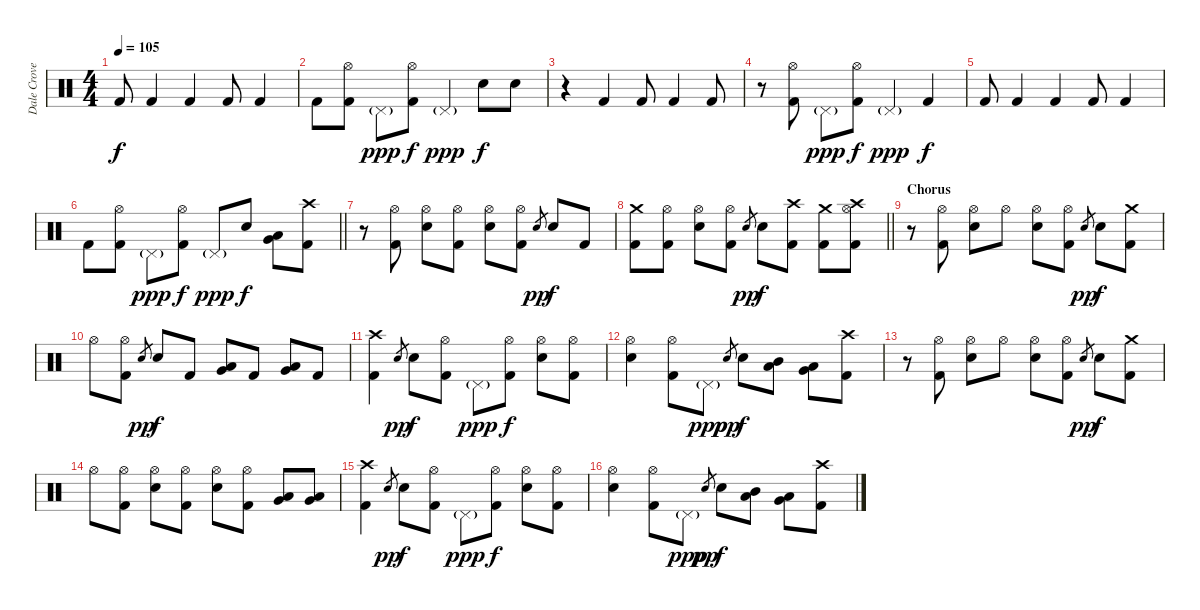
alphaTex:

\track ("Dale Crover" "Dale Crove") {instrument percussion}
\staff {score}
\articulation defaults
\ts (4 4)
\tempo 105
\clef neutral
\ks c "Kick (hit) 2".8{dy f} "Kick (hit) 2".4 "Kick (hit) 2".4 "Kick (hit) 2".8 "Kick (hit) 2".4
|
"Kick (hit) 2".8 ("Hi-Hat (open)" "Kick (hit) 2").8 "Pedal Hi-Hat (hit)"{g}.8{dy ppp} ("Hi-Hat (open)" "Kick (hit) 2").8{dy f} "Pedal Hi-Hat (hit)"{g}.4{dy ppp} "Electric Snare (hit)".8{dy f} "Electric Snare (hit)".8 |
r.4 "Kick (hit) 2".4 "Kick (hit) 2".8 "Kick (hit) 2".4 "Kick (hit) 2".8 |
r.8 ("Hi-Hat (open)" "Kick (hit) 2").8 "Pedal Hi-Hat (hit)"{g}.8{dy ppp} ("Hi-Hat (open)" "Kick (hit) 2").8{dy f} "Pedal Hi-Hat (hit)"{g}.4{dy ppp} "Kick (hit) 2".4{dy f} |
"Kick (hit) 2".8 "Kick (hit) 2".4 "Kick (hit) 2".4 "Kick (hit) 2".8 "Kick (hit) 2".4 |
\barLineRight lightlight "Kick (hit) 2".8
("Hi-Hat (open)" "Kick (hit) 2").8 "Pedal Hi-Hat (hit)"{g}.8{dy ppp} ("Hi-Hat (open)" "Kick (hit) 2").8{dy f} "Pedal Hi-Hat (hit)"{g}.8{dy ppp} "Electric Snare (hit)".8{dy f} ("Low Tom (hit)" "Very Low Tom (hit)").8 ("Crash high (hit)" "Kick (hit) 2").8 |
\section ("" "")
r.8 ("Hi-Hat (open)" "Kick (hit) 2").8 ("Hi-Hat (open)" "Electric Snare (hit)").8 ("Hi-Hat (open)" "Kick (hit) 2").8 ("Hi-Hat (open)" "Electric Snare (hit)").8 ("Hi-Hat (open)" "Kick (hit) 2").8 "Electric Snare (hit)".8{gr dy pp} "Electric Snare (hit)".8{dy f} "Kick (hit) 2".8 |
\barLineRight lightlight
("Crash medium (hit)" "Kick (hit) 2").8 ("Hi-Hat (open)" "Kick (hit) 2").8 ("Hi-Hat (open)" "Electric Snare (hit)").8 ("Hi-Hat (open)" "Kick (hit) 2").8 "Electric Snare (hit)".8{gr dy pp} "Electric Snare (hit)".8{dy f} ("Crash high (hit)" "Kick (hit) 2").8 ("Crash medium (hit)" "Kick (hit) 2").8 ("Hi-Hat (open)" "Crash high (hit)" "Kick (hit) 2").8 |
\section ("" "Chorus")
r.8 ("Hi-Hat (open)" "Kick (hit) 2").8 ("Hi-Hat (open)" "Electric Snare (hit)").8 "Hi-Hat (open)".8 ("Hi-Hat (open)" "Electric Snare (hit)").8 ("Hi-Hat (open)" "Kick (hit) 2").8 "Electric Snare (hit)".8{gr dy pp} "Electric Snare (hit)".8{dy f} ("Crash medium (hit)" "Kick (hit) 2").8 |
"Hi-Hat (open)".8 ("Hi-Hat (open)" "Kick (hit) 2").8 "Electric Snare (hit)".8{gr dy pp} "Electric Snare (hit)".8{dy f} "Kick (hit) 2".8 ("Low Tom (hit)" "Very Low Tom (hit)").8 "Kick (hit) 2".8 ("Very Low Tom (hit)" "Low Floor Tom (hit)").8 "Kick (hit) 2".8 |
("Crash high (hit)" "Kick (hit) 2").4 "Electric Snare (hit)".8{gr dy pp} "Electric Snare (hit)".8{dy f} ("Hi-Hat (open)" "Kick (hit) 2").8 "Pedal Hi-Hat (hit)"{g}.8{dy ppp} ("Hi-Hat (open)" "Kick (hit) 2").8{dy f} ("Hi-Hat (open)" "Electric Snare (hit)").8 ("Hi-Hat (open)" "Kick (hit) 2").8 |
("Hi-Hat (open)" "Electric Snare (hit)").4 ("Hi-Hat (open)" "Kick (hit) 2").8 "Pedal Hi-Hat (hit)"{g}.8{dy ppp} "Electric Snare (hit)".8{gr dy pp} "Electric Snare (hit)".8{dy f} ("Mid Tom (hit)" "Low Tom (hit)").8 ("Low Tom (hit)" "Very Low Tom (hit)").8 ("Crash high (hit)" "Kick (hit) 2").8 |
r.8 ("Hi-Hat (open)" "Kick (hit) 2").8 ("Hi-Hat (open)" "Electric Snare (hit)").8 "Hi-Hat (open)".8 ("Hi-Hat (open)" "Electric Snare (hit)").8 ("Hi-Hat (open)" "Kick (hit) 2").8 "Electric Snare (hit)".8{gr dy pp} "Electric Snare (hit)".8{dy f} ("Crash medium (hit)" "Kick (hit) 2").8 |
"Hi-Hat (open)".8 ("Hi-Hat (open)" "Kick (hit) 2").8 ("Hi-Hat (open)" "Electric Snare (hit)").8 ("Hi-Hat (open)" "Kick (hit) 2").8 ("Hi-Hat (open)" "Electric Snare (hit)").8 ("Hi-Hat (open)" "Kick (hit) 2").8 ("Low Tom (hit)" "Very Low Tom (hit)").8 ("Very Low Tom (hit)" "Low Floor Tom (hit)").8 |
("Crash high (hit)" "Kick (hit) 2").4 "Electric Snare (hit)".8{gr dy pp} "Electric Snare (hit)".8{dy f} ("Hi-Hat (open)" "Kick (hit) 2").8 "Pedal Hi-Hat (hit)"{g}.8{dy ppp} ("Hi-Hat (open)" "Kick (hit) 2").8{dy f} ("Hi-Hat (open)" "Electric Snare (hit)").8 ("Hi-Hat (open)" "Kick (hit) 2").8 |
("Hi-Hat (open)" "Electric Snare (hit)").4 ("Hi-Hat (open)" "Kick (hit) 2").8 "Pedal Hi-Hat (hit)"{g}.8{dy ppp} "Electric Snare (hit)".8{gr dy pp} "Electric Snare (hit)".8{dy f} ("Mid Tom (hit)" "Low Tom (hit)").8 ("Low Tom (hit)" "Very Low Tom (hit)").8 ("Crash high (hit)" "Kick (hit) 2").8
